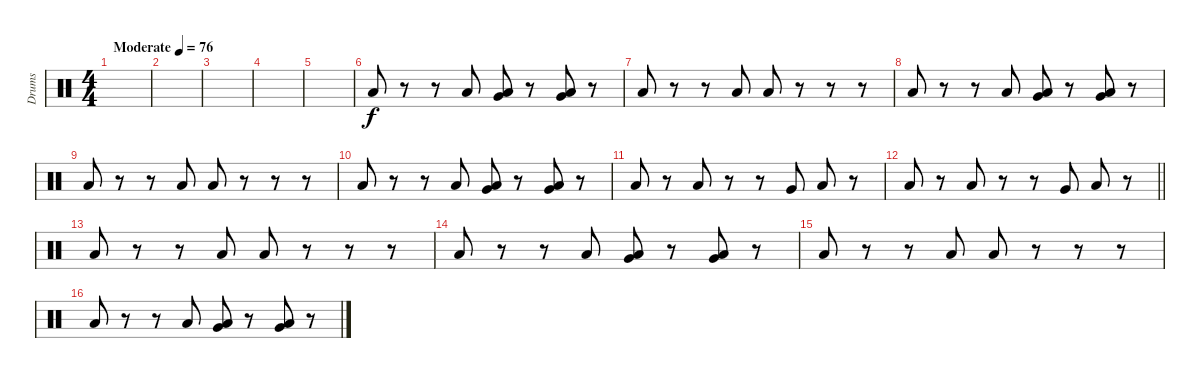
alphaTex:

\track ("Drums" "Drums") {instrument percussion}
\staff {score}
\articulation defaults
\ts (4 4)
\tempo (76 "Moderate")
\clef neutral
\ks c
|
|
|
|
|
"Low Floor Tom (hit)".8 r.8 r.8 "Low Floor Tom (hit)".8 ("Low Floor Tom (hit)" "Very Low Tom (hit)").8 r.8 ("Low Floor Tom (hit)" "Very Low Tom (hit)").8 r.8 |
"Low Floor Tom (hit)".8 r.8 r.8 "Low Floor Tom (hit)".8 "Low Floor Tom (hit)".8 r.8 r.8 r.8 |
"Low Floor Tom (hit)".8 r.8 r.8 "Low Floor Tom (hit)".8 ("Low Floor Tom (hit)" "Very Low Tom (hit)").8 r.8 ("Low Floor Tom (hit)" "Very Low Tom (hit)").8 r.8 |
"Low Floor Tom (hit)".8 r.8 r.8 "Low Floor Tom (hit)".8 "Low Floor Tom (hit)".8 r.8 r.8 r.8 |
"Low Floor Tom (hit)".8 r.8 r.8 "Low Floor Tom (hit)".8 ("Low Floor Tom (hit)" "Very Low Tom (hit)").8 r.8 ("Low Floor Tom (hit)" "Very Low Tom (hit)").8 r.8 |
"Low Floor Tom (hit)".8 r.8 "Low Floor Tom (hit)".8 r.8 r.8 "Very Low Tom (hit)".8 "Low Floor Tom (hit)".8 r.8 |
\barLineRight lightlight "Low Floor Tom (hit)".8
r.8 "Low Floor Tom (hit)".8 r.8 r.8 "Very Low Tom (hit)".8 "Low Floor Tom (hit)".8 r.8 |
"Low Floor Tom (hit)".8 r.8 r.8 "Low Floor Tom (hit)".8 "Low Floor Tom (hit)".8 r.8 r.8 r.8 |
"Low Floor Tom (hit)".8 r.8 r.8 "Low Floor Tom (hit)".8 ("Low Floor Tom (hit)" "Very Low Tom (hit)").8 r.8 ("Low Floor Tom (hit)" "Very Low Tom (hit)").8 r.8 |
"Low Floor Tom (hit)".8 r.8 r.8 "Low Floor Tom (hit)".8 "Low Floor Tom (hit)".8 r.8 r.8 r.8 |
"Low Floor Tom (hit)".8 r.8 r.8 "Low Floor Tom (hit)".8 ("Low Floor Tom (hit)" "Very Low Tom (hit)").8 r.8 ("Low Floor Tom (hit)" "Very Low Tom (hit)").8 r.8
